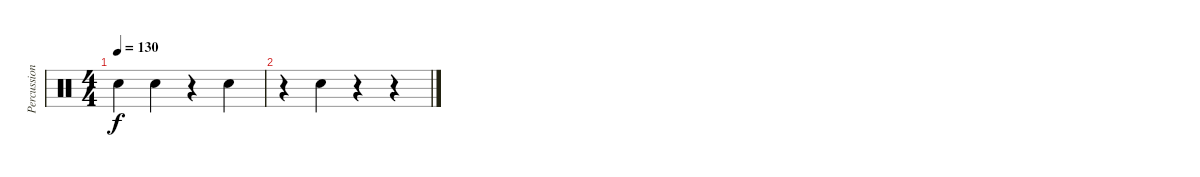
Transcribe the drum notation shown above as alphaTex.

\track ("Percussion" "Percussion") {instrument percussion}
\staff {score}
\articulation defaults
\ts (4 4)
\tempo 130
\clef neutral
\ks c "Electric Snare (hit)".4{dy f} "Electric Snare (hit)".4
r.4 "Electric Snare (hit)".4 |
r.4 "Electric Snare (hit)".4 r.4 r.4
